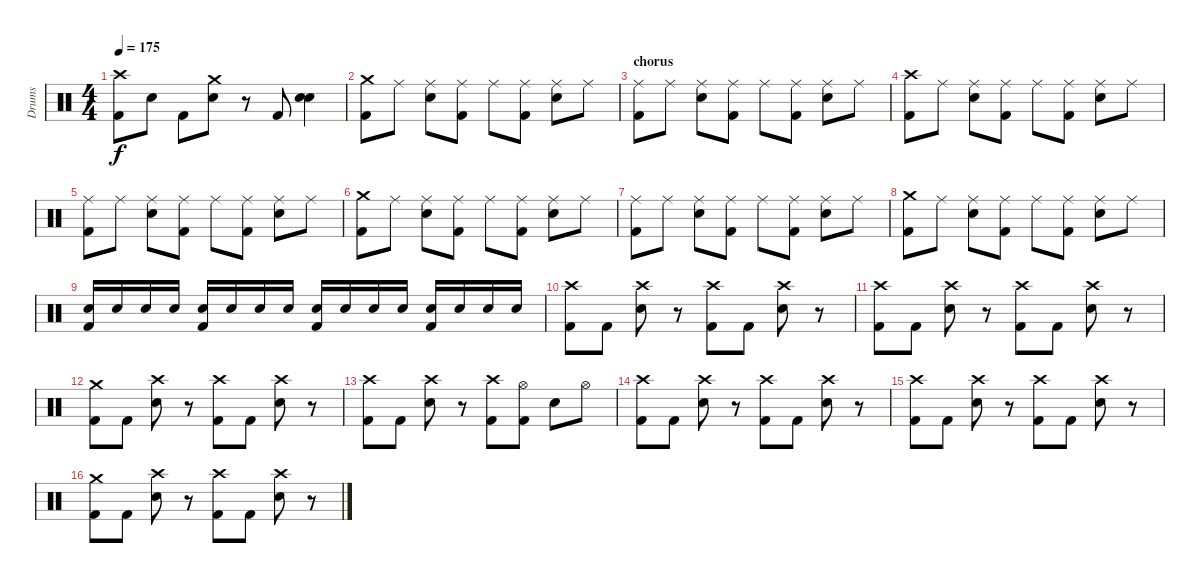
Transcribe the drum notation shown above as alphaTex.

\track ("Drums" "Drums") {instrument percussion}
\staff {score}
\articulation defaults
\ts (4 4)
\tempo 175
\clef neutral
\ks c
("Crash high (hit)" "Kick (hit) 2").8{dy f} "Snare (hit) 2".8 "Kick (hit) 2".8 ("Crash medium (hit)" "Snare (hit) 2").8 r.8 "Kick (hit) 2".8 ("Snare (hit) 2" "Snare (hit) 2").4 |
("Crash medium (hit)" "Kick (hit) 2").8 "Ride (middle)".8 ("Ride (middle)" "Snare (hit) 2").8 ("Ride (middle)" "Kick (hit) 2").8 "Ride (middle)".8 ("Ride (middle)" "Kick (hit) 2").8 ("Ride (middle)" "Snare (hit) 2").8 "Ride (middle)".8 |
\section ("" "chorus")
("Ride (middle)" "Kick (hit) 2").8 "Ride (middle)".8 ("Ride (middle)" "Snare (hit) 2").8 ("Ride (middle)" "Kick (hit) 2").8 "Ride (middle)".8 ("Ride (middle)" "Kick (hit) 2").8 ("Ride (middle)" "Snare (hit) 2").8 "Ride (middle)".8 |
("Crash high (hit)" "Kick (hit) 2").8 "Ride (middle)".8 ("Ride (middle)" "Snare (hit) 2").8 ("Ride (middle)" "Kick (hit) 2").8 "Ride (middle)".8 ("Ride (middle)" "Kick (hit) 2").8 ("Ride (middle)" "Snare (hit) 2").8 "Ride (middle)".8 |
("Ride (middle)" "Kick (hit) 2").8 "Ride (middle)".8 ("Ride (middle)" "Snare (hit) 2").8 ("Ride (middle)" "Kick (hit) 2").8 "Ride (middle)".8 ("Ride (middle)" "Kick (hit) 2").8 ("Ride (middle)" "Snare (hit) 2").8 "Ride (middle)".8 |
("Crash medium (hit)" "Kick (hit) 2").8 "Ride (middle)".8 ("Ride (middle)" "Snare (hit) 2").8 ("Ride (middle)" "Kick (hit) 2").8 "Ride (middle)".8 ("Ride (middle)" "Kick (hit) 2").8 ("Ride (middle)" "Snare (hit) 2").8 "Ride (middle)".8 |
("Ride (middle)" "Kick (hit) 2").8 "Ride (middle)".8 ("Ride (middle)" "Snare (hit) 2").8 ("Ride (middle)" "Kick (hit) 2").8 "Ride (middle)".8 ("Ride (middle)" "Kick (hit) 2").8 ("Ride (middle)" "Snare (hit) 2").8 "Ride (middle)".8 |
("Crash medium (hit)" "Kick (hit) 2").8 "Ride (middle)".8 ("Ride (middle)" "Snare (hit) 2").8 ("Ride (middle)" "Kick (hit) 2").8 "Ride (middle)".8 ("Ride (middle)" "Kick (hit) 2").8 ("Ride (middle)" "Snare (hit) 2").8 "Ride (middle)".8 |
("Snare (hit) 2" "Kick (hit) 2").16 "Snare (hit) 2".16 "Snare (hit) 2".16 "Snare (hit) 2".16 ("Snare (hit) 2" "Kick (hit) 2").16 "Snare (hit) 2".16 "Snare (hit) 2".16 "Snare (hit) 2".16 ("Snare (hit) 2" "Kick (hit) 2").16 "Snare (hit) 2".16 "Snare (hit) 2".16 "Snare (hit) 2".16 ("Snare (hit) 2" "Kick (hit) 2").16 "Snare (hit) 2".16 "Snare (hit) 2".16 "Snare (hit) 2".16 |
("Crash high (hit)" "Kick (hit) 2").8 "Kick (hit) 2".8 ("Crash high (hit)" "Snare (hit) 2").8 r.8 ("Crash high (hit)" "Kick (hit) 2").8 "Kick (hit) 2".8 ("Crash high (hit)" "Snare (hit) 2").8 r.8 |
("Crash high (hit)" "Kick (hit) 2").8 "Kick (hit) 2".8 ("Crash high (hit)" "Snare (hit) 2").8 r.8 ("Crash high (hit)" "Kick (hit) 2").8 "Kick (hit) 2".8 ("Crash high (hit)" "Snare (hit) 2").8 r.8 |
("Crash medium (hit)" "Kick (hit) 2").8 "Kick (hit) 2".8 ("Crash high (hit)" "Snare (hit) 2").8 r.8 ("Crash high (hit)" "Kick (hit) 2").8 "Kick (hit) 2".8 ("Crash high (hit)" "Snare (hit) 2").8 r.8 |
("Crash high (hit)" "Kick (hit) 2").8 "Kick (hit) 2".8 ("Crash high (hit)" "Snare (hit) 2").8 r.8 ("Crash high (hit)" "Kick (hit) 2").8 ("Hi-Hat (open)" "Kick (hit) 2").8 "Snare (hit) 2".8 "Hi-Hat (open)".8 |
("Crash high (hit)" "Kick (hit) 2").8 "Kick (hit) 2".8 ("Crash high (hit)" "Snare (hit) 2").8 r.8 ("Crash high (hit)" "Kick (hit) 2").8 "Kick (hit) 2".8 ("Crash high (hit)" "Snare (hit) 2").8 r.8 |
("Crash high (hit)" "Kick (hit) 2").8 "Kick (hit) 2".8 ("Crash high (hit)" "Snare (hit) 2").8 r.8 ("Crash high (hit)" "Kick (hit) 2").8 "Kick (hit) 2".8 ("Crash high (hit)" "Snare (hit) 2").8 r.8 |
("Crash medium (hit)" "Kick (hit) 2").8 "Kick (hit) 2".8 ("Crash high (hit)" "Snare (hit) 2").8 r.8 ("Crash high (hit)" "Kick (hit) 2").8 "Kick (hit) 2".8 ("Crash high (hit)" "Snare (hit) 2").8 r.8
